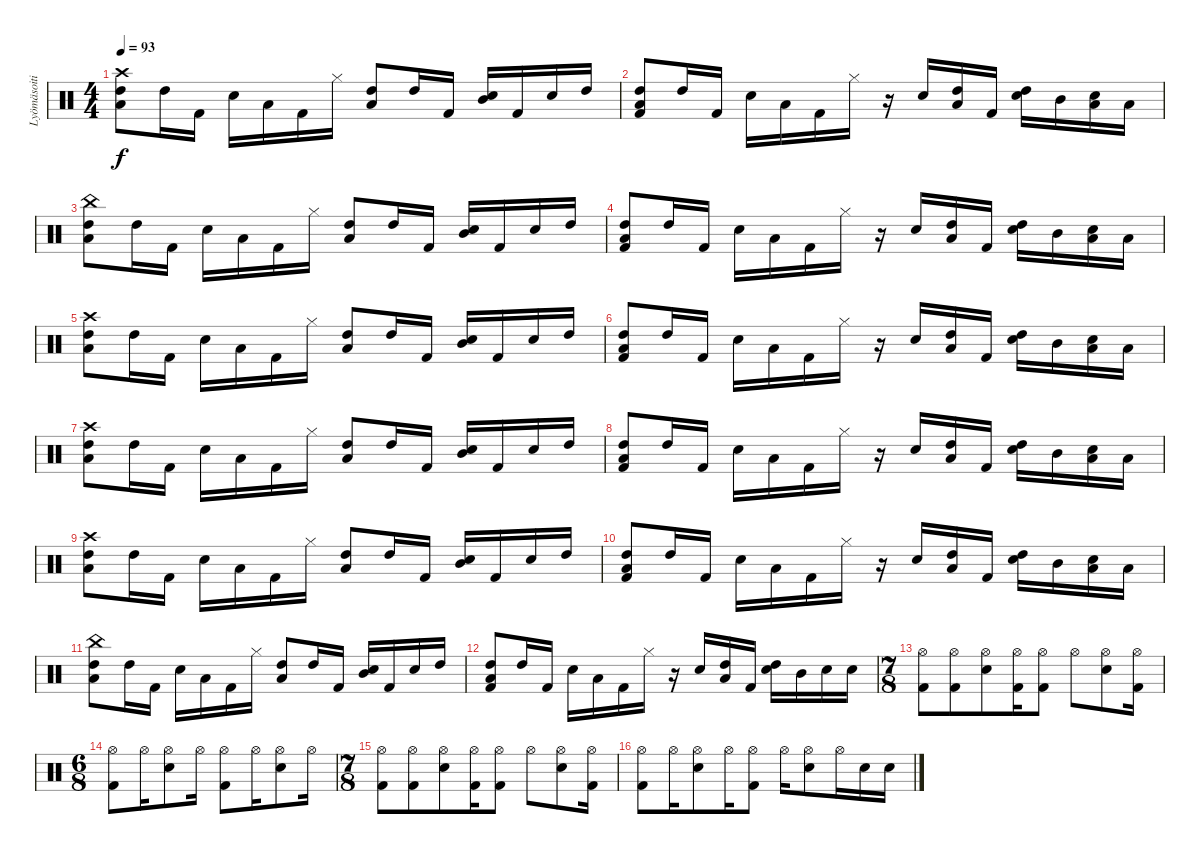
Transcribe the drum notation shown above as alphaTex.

\track ("Lyömäsoitin" "Lyömäsoiti") {instrument percussion}
\staff {score}
\articulation defaults
\ts (4 4)
\tempo 93
\clef neutral
\ks c
("Crash high (hit)" "Low Floor Tom (hit)" "High Tom (hit)").8{dy f} "High Tom (hit)".16 "Kick (hit) 2".16 "Electric Snare (hit)".16 "Low Floor Tom (hit)".16 "Kick (hit) 2".16 "Hi-Hat (closed)".16 ("Low Floor Tom (hit)" "High Tom (hit)").8 "High Tom (hit)".16 "Kick (hit) 2".16 ("Electric Snare (hit)" "Mid Tom (hit)").16 "Kick (hit) 2".16 "Electric Snare (hit)".16 "High Tom (hit)".16 |
("Kick (hit) 2" "High Tom (hit)" "Low Floor Tom (hit)").8 "High Tom (hit)".16 "Kick (hit) 2".16 "Electric Snare (hit)".16 "Low Floor Tom (hit)".16 "Kick (hit) 2".16 "Hi-Hat (closed)".16 r.16 "Electric Snare (hit)".16 ("Low Floor Tom (hit)" "High Tom (hit)").16 "Kick (hit) 2".16 ("High Tom (hit)" "Electric Snare (hit)").16 "Mid Tom (hit)".16 ("Low Tom (hit)" "Electric Snare (hit)").16 "Low Floor Tom (hit)".16 |
("China (hit)" "Low Floor Tom (hit)" "High Tom (hit)").8 "High Tom (hit)".16 "Kick (hit) 2".16 "Electric Snare (hit)".16 "Low Floor Tom (hit)".16 "Kick (hit) 2".16 "Hi-Hat (closed)".16 ("Low Floor Tom (hit)" "High Tom (hit)").8 "High Tom (hit)".16 "Kick (hit) 2".16 ("Electric Snare (hit)" "Mid Tom (hit)").16 "Kick (hit) 2".16 "Electric Snare (hit)".16 "High Tom (hit)".16 |
("Kick (hit) 2" "High Tom (hit)" "Low Floor Tom (hit)").8 "High Tom (hit)".16 "Kick (hit) 2".16 "Electric Snare (hit)".16 "Low Floor Tom (hit)".16 "Kick (hit) 2".16 "Hi-Hat (closed)".16 r.16 "Electric Snare (hit)".16 ("Low Floor Tom (hit)" "High Tom (hit)").16 "Kick (hit) 2".16 ("High Tom (hit)" "Electric Snare (hit)").16 "Mid Tom (hit)".16 ("Low Tom (hit)" "Electric Snare (hit)").16 "Low Floor Tom (hit)".16 |
("Crash high (hit)" "Low Floor Tom (hit)" "High Tom (hit)").8 "High Tom (hit)".16 "Kick (hit) 2".16 "Electric Snare (hit)".16 "Low Floor Tom (hit)".16 "Kick (hit) 2".16 "Hi-Hat (closed)".16 ("Low Floor Tom (hit)" "High Tom (hit)").8 "High Tom (hit)".16 "Kick (hit) 2".16 ("Electric Snare (hit)" "Mid Tom (hit)").16 "Kick (hit) 2".16 "Electric Snare (hit)".16 "High Tom (hit)".16 |
("Kick (hit) 2" "High Tom (hit)" "Low Floor Tom (hit)").8 "High Tom (hit)".16 "Kick (hit) 2".16 "Electric Snare (hit)".16 "Low Floor Tom (hit)".16 "Kick (hit) 2".16 "Hi-Hat (closed)".16 r.16 "Electric Snare (hit)".16 ("Low Floor Tom (hit)" "High Tom (hit)").16 "Kick (hit) 2".16 ("High Tom (hit)" "Electric Snare (hit)").16 "Mid Tom (hit)".16 ("Low Tom (hit)" "Electric Snare (hit)").16 "Low Floor Tom (hit)".16 |
("Crash high (hit)" "Low Floor Tom (hit)" "High Tom (hit)").8 "High Tom (hit)".16 "Kick (hit) 2".16 "Electric Snare (hit)".16 "Low Floor Tom (hit)".16 "Kick (hit) 2".16 "Hi-Hat (closed)".16 ("Low Floor Tom (hit)" "High Tom (hit)").8 "High Tom (hit)".16 "Kick (hit) 2".16 ("Electric Snare (hit)" "Mid Tom (hit)").16 "Kick (hit) 2".16 "Electric Snare (hit)".16 "High Tom (hit)".16 |
("Kick (hit) 2" "High Tom (hit)" "Low Floor Tom (hit)").8 "High Tom (hit)".16 "Kick (hit) 2".16 "Electric Snare (hit)".16 "Low Floor Tom (hit)".16 "Kick (hit) 2".16 "Hi-Hat (closed)".16 r.16 "Electric Snare (hit)".16 ("Low Floor Tom (hit)" "High Tom (hit)").16 "Kick (hit) 2".16 ("High Tom (hit)" "Electric Snare (hit)").16 "Mid Tom (hit)".16 ("Low Tom (hit)" "Electric Snare (hit)").16 "Low Floor Tom (hit)".16 |
("Crash high (hit)" "Low Floor Tom (hit)" "High Tom (hit)").8 "High Tom (hit)".16 "Kick (hit) 2".16 "Electric Snare (hit)".16 "Low Floor Tom (hit)".16 "Kick (hit) 2".16 "Hi-Hat (closed)".16 ("Low Floor Tom (hit)" "High Tom (hit)").8 "High Tom (hit)".16 "Kick (hit) 2".16 ("Electric Snare (hit)" "Mid Tom (hit)").16 "Kick (hit) 2".16 "Electric Snare (hit)".16 "High Tom (hit)".16 |
("Kick (hit) 2" "High Tom (hit)" "Low Floor Tom (hit)").8 "High Tom (hit)".16 "Kick (hit) 2".16 "Electric Snare (hit)".16 "Low Floor Tom (hit)".16 "Kick (hit) 2".16 "Hi-Hat (closed)".16 r.16 "Electric Snare (hit)".16 ("Low Floor Tom (hit)" "High Tom (hit)").16 "Kick (hit) 2".16 ("High Tom (hit)" "Electric Snare (hit)").16 "Mid Tom (hit)".16 ("Low Tom (hit)" "Electric Snare (hit)").16 "Low Floor Tom (hit)".16 |
("China (hit)" "Low Floor Tom (hit)" "High Tom (hit)").8 "High Tom (hit)".16 "Kick (hit) 2".16 "Electric Snare (hit)".16 "Low Floor Tom (hit)".16 "Kick (hit) 2".16 "Hi-Hat (closed)".16 ("Low Floor Tom (hit)" "High Tom (hit)").8 "High Tom (hit)".16 "Kick (hit) 2".16 ("Electric Snare (hit)" "Mid Tom (hit)").16 "Kick (hit) 2".16 "Electric Snare (hit)".16 "High Tom (hit)".16 |
("Kick (hit) 2" "High Tom (hit)" "Low Floor Tom (hit)").8 "High Tom (hit)".16 "Kick (hit) 2".16 "Electric Snare (hit)".16 "Low Floor Tom (hit)".16 "Kick (hit) 2".16 "Hi-Hat (closed)".16 r.16 "Electric Snare (hit)".16 ("Low Floor Tom (hit)" "High Tom (hit)").16 "Kick (hit) 2".16 ("High Tom (hit)" "Electric Snare (hit)").16 "Mid Tom (hit)".16 "Electric Snare (hit)".16 "Electric Snare (hit)".16 |
\ts (7 8)
("Hi-Hat (open)" "Kick (hit) 2").8 ("Hi-Hat (open)" "Kick (hit) 2").8 ("Hi-Hat (open)" "Electric Snare (hit)").8 ("Hi-Hat (open)" "Kick (hit) 2").16 ("Hi-Hat (open)" "Kick (hit) 2").8 "Hi-Hat (open)".8 ("Hi-Hat (open)" "Electric Snare (hit)").8 ("Hi-Hat (open)" "Kick (hit) 2").16 |
\ts (6 8)
("Hi-Hat (open)" "Kick (hit) 2").8 "Hi-Hat (open)".16 ("Hi-Hat (open)" "Electric Snare (hit)").8 "Hi-Hat (open)".16 ("Hi-Hat (open)" "Kick (hit) 2").8 "Hi-Hat (open)".16 ("Hi-Hat (open)" "Electric Snare (hit)").8 "Hi-Hat (open)".16 |
\ts (7 8)
("Hi-Hat (open)" "Kick (hit) 2").8 ("Hi-Hat (open)" "Kick (hit) 2").8 ("Hi-Hat (open)" "Electric Snare (hit)").8 ("Hi-Hat (open)" "Kick (hit) 2").16 ("Hi-Hat (open)" "Kick (hit) 2").8 "Hi-Hat (open)".8 ("Hi-Hat (open)" "Electric Snare (hit)").8 ("Hi-Hat (open)" "Kick (hit) 2").16 |
("Hi-Hat (open)" "Kick (hit) 2").8 "Hi-Hat (open)".16 ("Hi-Hat (open)" "Electric Snare (hit)").8 "Hi-Hat (open)".16 ("Hi-Hat (open)" "Kick (hit) 2").8 "Hi-Hat (open)".16 ("Hi-Hat (open)" "Electric Snare (hit)").8 "Hi-Hat (open)".16 "Electric Snare (hit)".16 "Electric Snare (hit)".16
